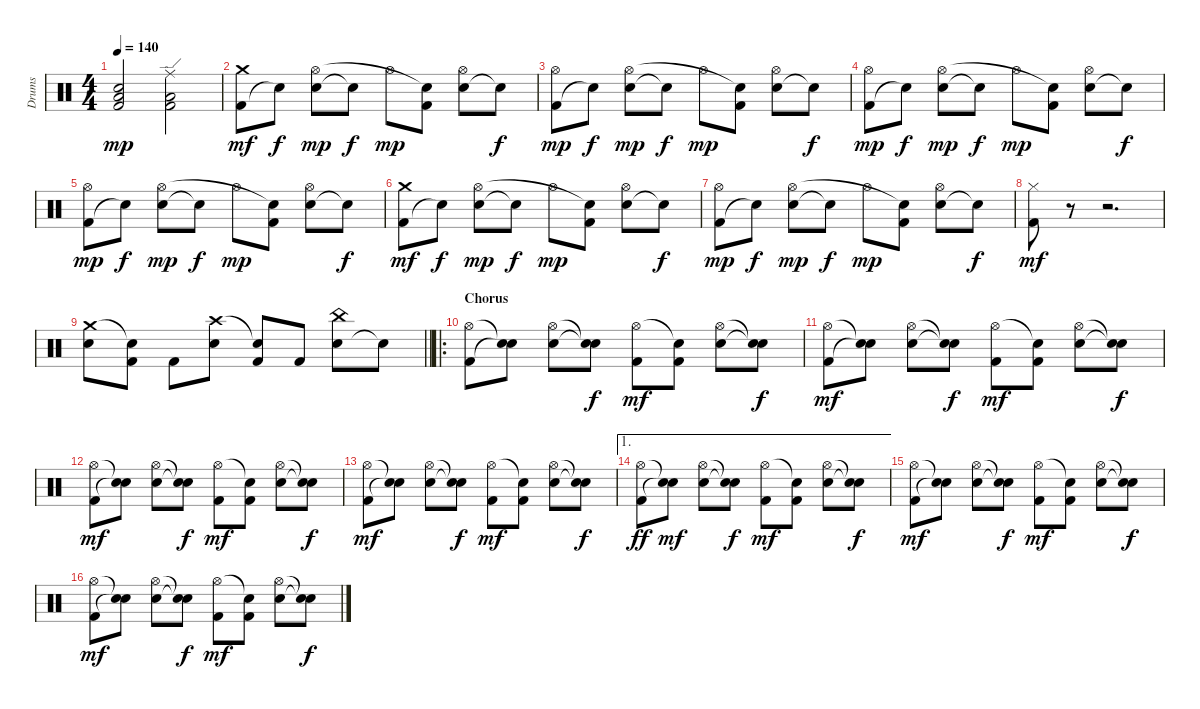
\track ("Drums" "Drums") {instrument percussion}
\staff {score}
\articulation defaults
\ts (4 4)
\tempo 140
\clef neutral
\ks c
("Kick (hit) 2" "Low Floor Tom (hit)" "Hand Clap (hit)").2{dy mp} ("Kick (hit) 2" "Low Floor Tom (hit)" "Ride (edge)").2 |
("Kick (hit) 2" "Crash medium (hit)").8{dy mf} "Snare (hit)"{t}.8{dy f} ("Snare (hit) 2" "Hi-Hat (open)").8{dy mp} "Snare (hit)"{t}.8{dy f} "Hi-Hat (open)".8{dy mp} ("Kick (hit) 2" "Snare (hit)"{t}).8 ("Snare (hit) 2" "Hi-Hat (open)").8 "Snare (hit)"{t}.8{dy f} |
("Kick (hit) 2" "Hi-Hat (open)").8{dy mp} "Snare (hit)"{t}.8{dy f} ("Snare (hit) 2" "Hi-Hat (open)").8{dy mp} "Snare (hit)"{t}.8{dy f} "Hi-Hat (open)".8{dy mp} ("Kick (hit) 2" "Snare (hit)"{t}).8 ("Snare (hit) 2" "Hi-Hat (open)").8 "Snare (hit)"{t}.8{dy f} |
("Kick (hit) 2" "Hi-Hat (open)").8{dy mp} "Snare (hit)"{t}.8{dy f} ("Snare (hit) 2" "Hi-Hat (open)").8{dy mp} "Snare (hit)"{t}.8{dy f} "Hi-Hat (open)".8{dy mp} ("Kick (hit) 2" "Snare (hit)"{t}).8 ("Snare (hit) 2" "Hi-Hat (open)").8 "Snare (hit)"{t}.8{dy f} |
("Kick (hit) 2" "Hi-Hat (open)").8{dy mp} "Snare (hit)"{t}.8{dy f} ("Snare (hit) 2" "Hi-Hat (open)").8{dy mp} "Snare (hit)"{t}.8{dy f} "Hi-Hat (open)".8{dy mp} ("Kick (hit) 2" "Snare (hit)"{t}).8 ("Snare (hit) 2" "Hi-Hat (open)").8 "Snare (hit)"{t}.8{dy f} |
("Kick (hit) 2" "Crash medium (hit)").8{dy mf} "Snare (hit)"{t}.8{dy f} ("Snare (hit) 2" "Hi-Hat (open)").8{dy mp} "Snare (hit)"{t}.8{dy f} "Hi-Hat (open)".8{dy mp} ("Kick (hit) 2" "Snare (hit)"{t}).8 ("Snare (hit) 2" "Hi-Hat (open)").8 "Snare (hit)"{t}.8{dy f} |
("Kick (hit) 2" "Hi-Hat (open)").8{dy mp} "Snare (hit)"{t}.8{dy f} ("Snare (hit) 2" "Hi-Hat (open)").8{dy mp} "Snare (hit)"{t}.8{dy f} "Hi-Hat (open)".8{dy mp} ("Kick (hit) 2" "Snare (hit)"{t}).8 ("Snare (hit) 2" "Hi-Hat (open)").8 "Snare (hit)"{t}.8{dy f} |
("Kick (hit) 2" "Hi-Hat (closed)").8{dy mf} r.8 r.2{d} |
\barLineRight lightlight
("Snare (hit) 2" "Crash medium (hit)").8 ("Kick (hit) 2" "Snare (hit)"{t}).8 "Kick (hit) 2".8 ("Snare (hit) 2" "Crash high (hit)").8 ("Kick (hit) 2" "Snare (hit)"{t}).8 "Kick (hit) 2".8 ("Snare (hit) 2" "China (hit)").8 "Snare (hit)"{t}.8 |
\ro
\section ("" "Chorus")
("Kick (hit) 2" "Hi-Hat (open)").8 ("Snare (hit)"{t} "Snare (hit)"{t}).8 ("Snare (hit) 2" "Hi-Hat (open)").8 ("Snare (hit)"{t} "Snare (hit)"{t}).8{dy f} ("Kick (hit) 2" "Hi-Hat (open)").8{dy mf} ("Kick (hit) 2" "Snare (hit)"{t}).8 ("Snare (hit) 2" "Hi-Hat (open)").8 ("Snare (hit)"{t} "Snare (hit)"{t}).8{dy f} |
("Kick (hit) 2" "Hi-Hat (open)").8{dy mf} ("Snare (hit)"{t} "Snare (hit)"{t}).8 ("Snare (hit) 2" "Hi-Hat (open)").8 ("Snare (hit)"{t} "Snare (hit)"{t}).8{dy f} ("Kick (hit) 2" "Hi-Hat (open)").8{dy mf} ("Kick (hit) 2" "Snare (hit)"{t}).8 ("Snare (hit) 2" "Hi-Hat (open)").8 ("Snare (hit)"{t} "Snare (hit)"{t}).8{dy f} |
("Kick (hit) 2" "Hi-Hat (open)").8{dy mf} ("Snare (hit)"{t} "Snare (hit)"{t}).8 ("Snare (hit) 2" "Hi-Hat (open)").8 ("Snare (hit)"{t} "Snare (hit)"{t}).8{dy f} ("Kick (hit) 2" "Hi-Hat (open)").8{dy mf} ("Kick (hit) 2" "Snare (hit)"{t}).8 ("Snare (hit) 2" "Hi-Hat (open)").8 ("Snare (hit)"{t} "Snare (hit)"{t}).8{dy f} |
("Kick (hit) 2" "Hi-Hat (open)").8{dy mf} ("Snare (hit)"{t} "Snare (hit)"{t}).8 ("Snare (hit) 2" "Hi-Hat (open)").8 ("Snare (hit)"{t} "Snare (hit)"{t}).8{dy f} ("Kick (hit) 2" "Hi-Hat (open)").8{dy mf} ("Kick (hit) 2" "Snare (hit)"{t}).8 ("Snare (hit) 2" "Hi-Hat (open)").8 ("Snare (hit)"{t} "Snare (hit)"{t}).8{dy f} |
\ae 1
("Kick (hit) 2" "Hi-Hat (open)").8{dy ff} ("Snare (hit)"{t} "Snare (hit)"{t}).8{dy mf} ("Snare (hit) 2" "Hi-Hat (open)").8 ("Snare (hit)"{t} "Snare (hit)"{t}).8{dy f} ("Kick (hit) 2" "Hi-Hat (open)").8{dy mf} ("Kick (hit) 2" "Snare (hit)"{t}).8 ("Snare (hit) 2" "Hi-Hat (open)").8 ("Snare (hit)"{t} "Snare (hit)"{t}).8{dy f} |
("Kick (hit) 2" "Hi-Hat (open)").8{dy mf} ("Snare (hit)"{t} "Snare (hit)"{t}).8 ("Snare (hit) 2" "Hi-Hat (open)").8 ("Snare (hit)"{t} "Snare (hit)"{t}).8{dy f} ("Kick (hit) 2" "Hi-Hat (open)").8{dy mf} ("Kick (hit) 2" "Snare (hit)"{t}).8 ("Snare (hit) 2" "Hi-Hat (open)").8 ("Snare (hit)"{t} "Snare (hit)"{t}).8{dy f} |
("Kick (hit) 2" "Hi-Hat (open)").8{dy mf} ("Snare (hit)"{t} "Snare (hit)"{t}).8 ("Snare (hit) 2" "Hi-Hat (open)").8 ("Snare (hit)"{t} "Snare (hit)"{t}).8{dy f} ("Kick (hit) 2" "Hi-Hat (open)").8{dy mf} ("Kick (hit) 2" "Snare (hit)"{t}).8 ("Snare (hit) 2" "Hi-Hat (open)").8 ("Snare (hit)"{t} "Snare (hit)"{t}).8{dy f}
